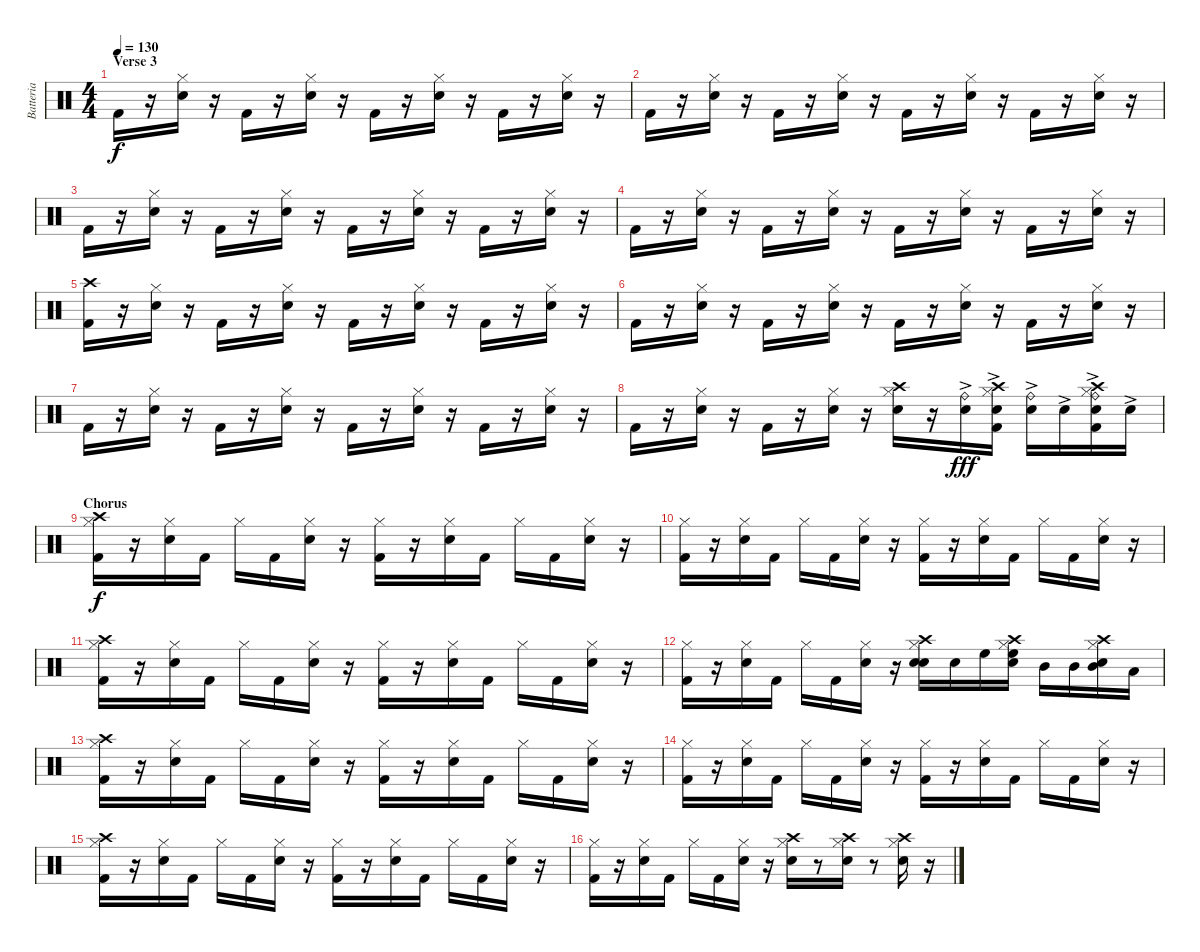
\track ("Batteria" "Batteria") {instrument percussion}
\staff {score}
\articulation defaults
\ts (4 4)
\section ("" "Verse 3")
\tempo 130
\clef neutral
\ks c "Kick (hit) 2".16{dy f}
r.16 ("Snare (hit) 2" "Hi-Hat (closed)").16 r.16 "Kick (hit) 2".16 r.16 ("Snare (hit) 2" "Hi-Hat (closed)").16 r.16 "Kick (hit) 2".16 r.16 ("Snare (hit) 2" "Hi-Hat (closed)").16 r.16 "Kick (hit) 2".16 r.16 ("Snare (hit) 2" "Hi-Hat (closed)").16 r.16 |
"Kick (hit) 2".16 r.16 ("Snare (hit) 2" "Hi-Hat (closed)").16 r.16 "Kick (hit) 2".16 r.16 ("Snare (hit) 2" "Hi-Hat (closed)").16 r.16 "Kick (hit) 2".16 r.16 ("Snare (hit) 2" "Hi-Hat (closed)").16 r.16 "Kick (hit) 2".16 r.16 ("Snare (hit) 2" "Hi-Hat (closed)").16 r.16 |
"Kick (hit) 2".16 r.16 ("Snare (hit) 2" "Hi-Hat (closed)").16 r.16 "Kick (hit) 2".16 r.16 ("Snare (hit) 2" "Hi-Hat (closed)").16 r.16 "Kick (hit) 2".16 r.16 ("Snare (hit) 2" "Hi-Hat (closed)").16 r.16 "Kick (hit) 2".16 r.16 ("Snare (hit) 2" "Hi-Hat (closed)").16 r.16 |
"Kick (hit) 2".16 r.16 ("Snare (hit) 2" "Hi-Hat (closed)").16 r.16 "Kick (hit) 2".16 r.16 ("Snare (hit) 2" "Hi-Hat (closed)").16 r.16 "Kick (hit) 2".16 r.16 ("Snare (hit) 2" "Hi-Hat (closed)").16 r.16 "Kick (hit) 2".16 r.16 ("Snare (hit) 2" "Hi-Hat (closed)").16 r.16 |
("Crash high (hit)" "Kick (hit) 2").16 r.16 ("Snare (hit) 2" "Hi-Hat (closed)").16 r.16 "Kick (hit) 2".16 r.16 ("Snare (hit) 2" "Hi-Hat (closed)").16 r.16 "Kick (hit) 2".16 r.16 ("Snare (hit) 2" "Hi-Hat (closed)").16 r.16 "Kick (hit) 2".16 r.16 ("Snare (hit) 2" "Hi-Hat (closed)").16 r.16 |
"Kick (hit) 2".16 r.16 ("Snare (hit) 2" "Hi-Hat (closed)").16 r.16 "Kick (hit) 2".16 r.16 ("Snare (hit) 2" "Hi-Hat (closed)").16 r.16 "Kick (hit) 2".16 r.16 ("Snare (hit) 2" "Hi-Hat (closed)").16 r.16 "Kick (hit) 2".16 r.16 ("Snare (hit) 2" "Hi-Hat (closed)").16 r.16 |
"Kick (hit) 2".16 r.16 ("Snare (hit) 2" "Hi-Hat (closed)").16 r.16 "Kick (hit) 2".16 r.16 ("Snare (hit) 2" "Hi-Hat (closed)").16 r.16 "Kick (hit) 2".16 r.16 ("Snare (hit) 2" "Hi-Hat (closed)").16 r.16 "Kick (hit) 2".16 r.16 ("Snare (hit) 2" "Hi-Hat (closed)").16 r.16 |
"Kick (hit) 2".16 r.16 ("Snare (hit) 2" "Hi-Hat (closed)").16 r.16 "Kick (hit) 2".16 r.16 ("Snare (hit) 2" "Hi-Hat (closed)").16 r.16 ("Snare (hit) 2" "Crash high (hit)" "Hi-Hat (closed)").16 r.16 ("Snare (hit) 2"{ac} "Ride (bell)").16{dy fff} ("Snare (hit) 2"{ac} "Crash high (hit)" "Kick (hit) 2" "Hi-Hat (closed)").16 ("Snare (hit) 2"{ac} "Ride (bell)").16 "Snare (hit) 2"{ac}.16 ("Snare (hit) 2"{ac} "Crash high (hit)" "Kick (hit) 2" "Hi-Hat (closed)" "Ride (bell)").16 "Snare (hit) 2"{ac}.16 |
\section ("" "Chorus")
("Kick (hit) 2" "Crash high (hit)" "Hi-Hat (closed)").16{dy f} r.16 ("Snare (hit) 2" "Hi-Hat (closed)").16 "Kick (hit) 2".16 "Hi-Hat (closed)".16 "Kick (hit) 2".16 ("Snare (hit) 2" "Hi-Hat (closed)").16 r.16 ("Kick (hit) 2" "Hi-Hat (closed)").16 r.16 ("Snare (hit) 2" "Hi-Hat (closed)").16 "Kick (hit) 2".16 "Hi-Hat (closed)".16 "Kick (hit) 2".16 ("Snare (hit) 2" "Hi-Hat (closed)").16 r.16 |
("Kick (hit) 2" "Hi-Hat (closed)").16 r.16 ("Snare (hit) 2" "Hi-Hat (closed)").16 "Kick (hit) 2".16 "Hi-Hat (closed)".16 "Kick (hit) 2".16 ("Snare (hit) 2" "Hi-Hat (closed)").16 r.16 ("Kick (hit) 2" "Hi-Hat (closed)").16 r.16 ("Snare (hit) 2" "Hi-Hat (closed)").16 "Kick (hit) 2".16 "Hi-Hat (closed)".16 "Kick (hit) 2".16 ("Snare (hit) 2" "Hi-Hat (closed)").16 r.16 |
("Kick (hit) 2" "Crash high (hit)" "Hi-Hat (closed)").16 r.16 ("Snare (hit) 2" "Hi-Hat (closed)").16 "Kick (hit) 2".16 "Hi-Hat (closed)".16 "Kick (hit) 2".16 ("Snare (hit) 2" "Hi-Hat (closed)").16 r.16 ("Kick (hit) 2" "Hi-Hat (closed)").16 r.16 ("Snare (hit) 2" "Hi-Hat (closed)").16 "Kick (hit) 2".16 "Hi-Hat (closed)".16 "Kick (hit) 2".16 ("Snare (hit) 2" "Hi-Hat (closed)").16 r.16 |
("Kick (hit) 2" "Hi-Hat (closed)").16 r.16 ("Snare (hit) 2" "Hi-Hat (closed)").16 "Kick (hit) 2".16 "Hi-Hat (closed)".16 "Kick (hit) 2".16 ("Snare (hit) 2" "Hi-Hat (closed)").16 r.16 ("Snare (hit) 2" "Crash high (hit)" "Hi-Hat (closed)" "Snare (hit) 2").16 "Snare (hit) 2".16 "High Floor Tom (hit)".16 ("Snare (hit) 2" "Crash high (hit)" "Hi-Hat (closed)" "High Floor Tom (hit)").16 "Mid Tom (hit)".16 "Mid Tom (hit)".16 ("Snare (hit) 2" "Crash high (hit)" "Hi-Hat (closed)" "Mid Tom (hit)").16 "Low Tom (hit)".16 |
("Kick (hit) 2" "Crash high (hit)" "Hi-Hat (closed)").16 r.16 ("Snare (hit) 2" "Hi-Hat (closed)").16 "Kick (hit) 2".16 "Hi-Hat (closed)".16 "Kick (hit) 2".16 ("Snare (hit) 2" "Hi-Hat (closed)").16 r.16 ("Kick (hit) 2" "Hi-Hat (closed)").16 r.16 ("Snare (hit) 2" "Hi-Hat (closed)").16 "Kick (hit) 2".16 "Hi-Hat (closed)".16 "Kick (hit) 2".16 ("Snare (hit) 2" "Hi-Hat (closed)").16 r.16 |
("Kick (hit) 2" "Hi-Hat (closed)").16 r.16 ("Snare (hit) 2" "Hi-Hat (closed)").16 "Kick (hit) 2".16 "Hi-Hat (closed)".16 "Kick (hit) 2".16 ("Snare (hit) 2" "Hi-Hat (closed)").16 r.16 ("Kick (hit) 2" "Hi-Hat (closed)").16 r.16 ("Snare (hit) 2" "Hi-Hat (closed)").16 "Kick (hit) 2".16 "Hi-Hat (closed)".16 "Kick (hit) 2".16 ("Snare (hit) 2" "Hi-Hat (closed)").16 r.16 |
("Kick (hit) 2" "Crash high (hit)" "Hi-Hat (closed)").16 r.16 ("Snare (hit) 2" "Hi-Hat (closed)").16 "Kick (hit) 2".16 "Hi-Hat (closed)".16 "Kick (hit) 2".16 ("Snare (hit) 2" "Hi-Hat (closed)").16 r.16 ("Kick (hit) 2" "Hi-Hat (closed)").16 r.16 ("Snare (hit) 2" "Hi-Hat (closed)").16 "Kick (hit) 2".16 "Hi-Hat (closed)".16 "Kick (hit) 2".16 ("Snare (hit) 2" "Hi-Hat (closed)").16 r.16 |
("Kick (hit) 2" "Hi-Hat (closed)").16 r.16 ("Snare (hit) 2" "Hi-Hat (closed)").16 "Kick (hit) 2".16 "Hi-Hat (closed)".16 "Kick (hit) 2".16 ("Snare (hit) 2" "Hi-Hat (closed)").16 r.16 ("Snare (hit) 2" "Crash high (hit)" "Hi-Hat (closed)").16 r.8 ("Snare (hit) 2" "Crash high (hit)" "Hi-Hat (closed)").16 r.8 ("Snare (hit) 2" "Crash high (hit)" "Hi-Hat (closed)").16 r.16
